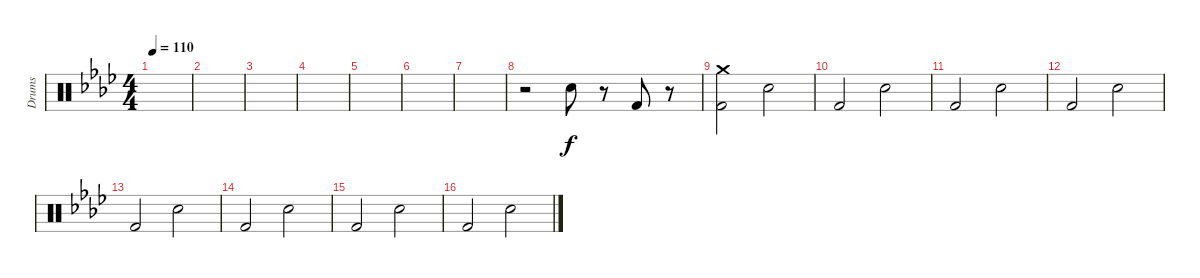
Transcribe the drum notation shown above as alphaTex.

\track ("Drums" "Drums") {instrument percussion}
\staff {score}
\articulation defaults
\ts (4 4)
\tempo 110
\clef neutral
\ks fminor
|
|
|
|
|
|
|
r.2 "Snare (hit) 2".8 r.8 "Kick (hit) 2".8 r.8 |
("Crash medium (hit)" "Kick (hit) 2").2 "Snare (hit) 2".2 |
"Kick (hit) 2".2 "Snare (hit) 2".2 |
"Kick (hit) 2".2 "Snare (hit) 2".2 |
"Kick (hit) 2".2 "Snare (hit) 2".2 |
"Kick (hit) 2".2 "Snare (hit) 2".2 |
"Kick (hit) 2".2 "Snare (hit) 2".2 |
"Kick (hit) 2".2 "Snare (hit) 2".2 |
"Kick (hit) 2".2 "Snare (hit) 2".2
